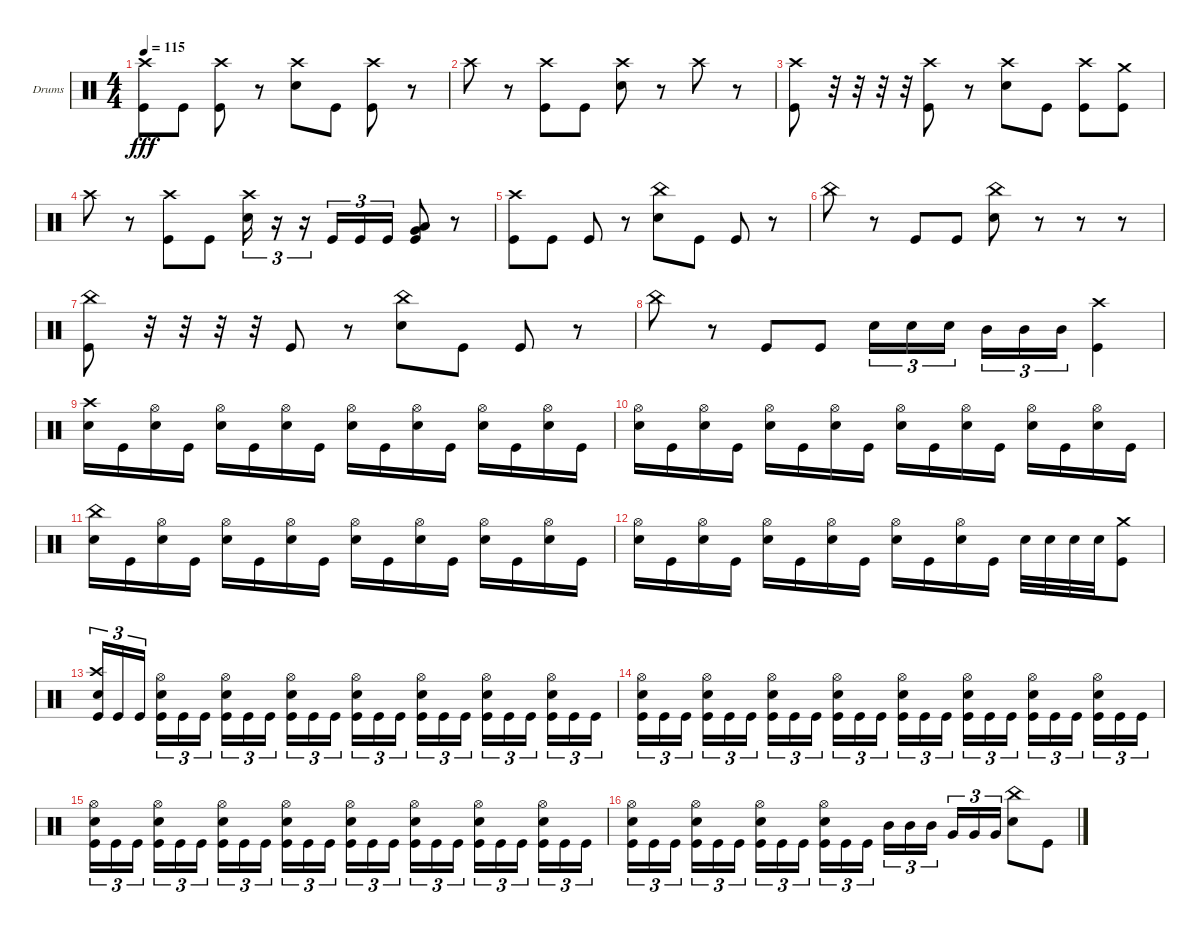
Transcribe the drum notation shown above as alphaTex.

\bracketExtendMode groupsimilarinstruments
\firstSystemTrackNameOrientation horizontal
\otherSystemsTrackNameOrientation horizontal
\track ("Drumkit" "Drums") {instrument percussion}
\staff {score}
\articulation defaults
\ts (4 4)
\tempo 115
\clef neutral
\ks c
("Kick (hit)" "Crash high (hit)").8{dy fff} "Kick (hit)".8 ("Kick (hit)" "Crash high (hit)").8 r.8 ("Crash high (hit)" "Snare (hit) 2").8 "Kick (hit)".8 ("Kick (hit)" "Crash high (hit)").8 r.8 |
"Crash high (hit)".8 r.8 ("Kick (hit)" "Crash high (hit)").8 "Kick (hit)".8 ("Crash high (hit)" "Snare (hit) 2").8 r.8 "Crash high (hit)".8 r.8 |
("Kick (hit)" "Crash high (hit)").8 r.32 r.32 r.32 r.32 ("Kick (hit)" "Crash high (hit)").8 r.8 ("Crash high (hit)" "Snare (hit) 2").8 "Kick (hit)".8 ("Kick (hit)" "Crash high (hit)").8 ("Kick (hit)" "Crash medium (hit)").8 |
"Crash high (hit)".8 r.8 ("Kick (hit)" "Crash high (hit)").8 "Kick (hit)".8 ("Crash high (hit)" "Snare (hit) 2").16{tu (3 2)} r.16{tu (3 2)} r.16{tu (3 2)} "Kick (hit)".16{tu (3 2)} "Kick (hit)".16{tu (3 2)} "Kick (hit)".16{tu (3 2)} ("Kick (hit)" "Very Low Tom (hit)" "Low Tom (hit)").8 r.8 |
("Kick (hit)" "Crash high (hit)").8 "Kick (hit)".8 "Kick (hit)".8 r.8 ("Snare (hit) 2" "China (hit)").8 "Kick (hit)".8 "Kick (hit)".8 r.8 |
"China (hit)".8 r.8 "Kick (hit)".8 "Kick (hit)".8 ("Snare (hit) 2" "China (hit)").8 r.8 r.8 r.8 |
("Kick (hit)" "China (hit)").8 r.32 r.32 r.32 r.32 "Kick (hit)".8 r.8 ("Snare (hit) 2" "China (hit)").8 "Kick (hit)".8 "Kick (hit)".8 r.8 |
"China (hit)".8 r.8 "Kick (hit)".8 "Kick (hit)".8 "Snare (hit) 2".16{tu (3 2)} "Snare (hit) 2".16{tu (3 2)} "Snare (hit) 2".16{tu (3 2)} "Mid Tom (hit)".16{tu (3 2)} "Mid Tom (hit)".16{tu (3 2)} "Mid Tom (hit)".16{tu (3 2)} ("Kick (hit)" "Crash high (hit)").4 |
("Snare (hit) 2" "Crash high (hit)").16 "Kick (hit)".16 ("Snare (hit) 2" "Hi-Hat (open)").16 "Kick (hit)".16 ("Snare (hit) 2" "Hi-Hat (open)").16 "Kick (hit)".16 ("Snare (hit) 2" "Hi-Hat (open)").16 "Kick (hit)".16 ("Snare (hit) 2" "Hi-Hat (open)").16 "Kick (hit)".16 ("Snare (hit) 2" "Hi-Hat (open)").16 "Kick (hit)".16 ("Snare (hit) 2" "Hi-Hat (open)").16 "Kick (hit)".16 ("Snare (hit) 2" "Hi-Hat (open)").16 "Kick (hit)".16 |
("Snare (hit) 2" "Hi-Hat (open)").16 "Kick (hit)".16 ("Snare (hit) 2" "Hi-Hat (open)").16 "Kick (hit)".16 ("Snare (hit) 2" "Hi-Hat (open)").16 "Kick (hit)".16 ("Snare (hit) 2" "Hi-Hat (open)").16 "Kick (hit)".16 ("Snare (hit) 2" "Hi-Hat (open)").16 "Kick (hit)".16 ("Snare (hit) 2" "Hi-Hat (open)").16 "Kick (hit)".16 ("Snare (hit) 2" "Hi-Hat (open)").16 "Kick (hit)".16 ("Snare (hit) 2" "Hi-Hat (open)").16 "Kick (hit)".16 |
("Snare (hit) 2" "China (hit)").16 "Kick (hit)".16 ("Snare (hit) 2" "Hi-Hat (open)").16 "Kick (hit)".16 ("Snare (hit) 2" "Hi-Hat (open)").16 "Kick (hit)".16 ("Snare (hit) 2" "Hi-Hat (open)").16 "Kick (hit)".16 ("Snare (hit) 2" "Hi-Hat (open)").16 "Kick (hit)".16 ("Snare (hit) 2" "Hi-Hat (open)").16 "Kick (hit)".16 ("Snare (hit) 2" "Hi-Hat (open)").16 "Kick (hit)".16 ("Snare (hit) 2" "Hi-Hat (open)").16 "Kick (hit)".16 |
("Snare (hit) 2" "Hi-Hat (open)").16 "Kick (hit)".16 ("Snare (hit) 2" "Hi-Hat (open)").16 "Kick (hit)".16 ("Snare (hit) 2" "Hi-Hat (open)").16 "Kick (hit)".16 ("Snare (hit) 2" "Hi-Hat (open)").16 "Kick (hit)".16 ("Snare (hit) 2" "Hi-Hat (open)").16 "Kick (hit)".16 ("Snare (hit) 2" "Hi-Hat (open)").16 "Kick (hit)".16 "Snare (hit) 2".32 "Snare (hit) 2".32 "Snare (hit) 2".32 "Snare (hit) 2".32 ("Crash medium (hit)" "Kick (hit)").8 |
("Kick (hit)" "Snare (hit) 2" "Crash high (hit)").16{tu (3 2)} "Kick (hit)".16{tu (3 2)} "Kick (hit)".16{tu (3 2)} ("Kick (hit)" "Snare (hit) 2" "Hi-Hat (open)").16{tu (3 2)} "Kick (hit)".16{tu (3 2)} "Kick (hit)".16{tu (3 2)} ("Kick (hit)" "Snare (hit) 2" "Hi-Hat (open)").16{tu (3 2)} "Kick (hit)".16{tu (3 2)} "Kick (hit)".16{tu (3 2)} ("Kick (hit)" "Snare (hit) 2" "Hi-Hat (open)").16{tu (3 2)} "Kick (hit)".16{tu (3 2)} "Kick (hit)".16{tu (3 2)} ("Kick (hit)" "Snare (hit) 2" "Hi-Hat (open)").16{tu (3 2)} "Kick (hit)".16{tu (3 2)} "Kick (hit)".16{tu (3 2)} ("Kick (hit)" "Snare (hit) 2" "Hi-Hat (open)").16{tu (3 2)} "Kick (hit)".16{tu (3 2)} "Kick (hit)".16{tu (3 2)} ("Kick (hit)" "Snare (hit) 2" "Hi-Hat (open)").16{tu (3 2)} "Kick (hit)".16{tu (3 2)} "Kick (hit)".16{tu (3 2)} ("Kick (hit)" "Snare (hit) 2" "Hi-Hat (open)").16{tu (3 2)} "Kick (hit)".16{tu (3 2)} "Kick (hit)".16{tu (3 2)} |
("Kick (hit)" "Snare (hit) 2" "Hi-Hat (open)").16{tu (3 2)} "Kick (hit)".16{tu (3 2)} "Kick (hit)".16{tu (3 2)} ("Kick (hit)" "Snare (hit) 2" "Hi-Hat (open)").16{tu (3 2)} "Kick (hit)".16{tu (3 2)} "Kick (hit)".16{tu (3 2)} ("Kick (hit)" "Snare (hit) 2" "Hi-Hat (open)").16{tu (3 2)} "Kick (hit)".16{tu (3 2)} "Kick (hit)".16{tu (3 2)} ("Kick (hit)" "Snare (hit) 2" "Hi-Hat (open)").16{tu (3 2)} "Kick (hit)".16{tu (3 2)} "Kick (hit)".16{tu (3 2)} ("Kick (hit)" "Snare (hit) 2" "Hi-Hat (open)").16{tu (3 2)} "Kick (hit)".16{tu (3 2)} "Kick (hit)".16{tu (3 2)} ("Kick (hit)" "Snare (hit) 2" "Hi-Hat (open)").16{tu (3 2)} "Kick (hit)".16{tu (3 2)} "Kick (hit)".16{tu (3 2)} ("Kick (hit)" "Snare (hit) 2" "Hi-Hat (open)").16{tu (3 2)} "Kick (hit)".16{tu (3 2)} "Kick (hit)".16{tu (3 2)} ("Kick (hit)" "Snare (hit) 2" "Hi-Hat (open)").16{tu (3 2)} "Kick (hit)".16{tu (3 2)} "Kick (hit)".16{tu (3 2)} |
("Kick (hit)" "Snare (hit) 2" "Hi-Hat (open)").16{tu (3 2)} "Kick (hit)".16{tu (3 2)} "Kick (hit)".16{tu (3 2)} ("Kick (hit)" "Snare (hit) 2" "Hi-Hat (open)").16{tu (3 2)} "Kick (hit)".16{tu (3 2)} "Kick (hit)".16{tu (3 2)} ("Kick (hit)" "Snare (hit) 2" "Hi-Hat (open)").16{tu (3 2)} "Kick (hit)".16{tu (3 2)} "Kick (hit)".16{tu (3 2)} ("Kick (hit)" "Snare (hit) 2" "Hi-Hat (open)").16{tu (3 2)} "Kick (hit)".16{tu (3 2)} "Kick (hit)".16{tu (3 2)} ("Kick (hit)" "Snare (hit) 2" "Hi-Hat (open)").16{tu (3 2)} "Kick (hit)".16{tu (3 2)} "Kick (hit)".16{tu (3 2)} ("Kick (hit)" "Snare (hit) 2" "Hi-Hat (open)").16{tu (3 2)} "Kick (hit)".16{tu (3 2)} "Kick (hit)".16{tu (3 2)} ("Kick (hit)" "Snare (hit) 2" "Hi-Hat (open)").16{tu (3 2)} "Kick (hit)".16{tu (3 2)} "Kick (hit)".16{tu (3 2)} ("Kick (hit)" "Snare (hit) 2" "Hi-Hat (open)").16{tu (3 2)} "Kick (hit)".16{tu (3 2)} "Kick (hit)".16{tu (3 2)} |
("Kick (hit)" "Snare (hit) 2" "Hi-Hat (open)").16{tu (3 2)} "Kick (hit)".16{tu (3 2)} "Kick (hit)".16{tu (3 2)} ("Kick (hit)" "Snare (hit) 2" "Hi-Hat (open)").16{tu (3 2)} "Kick (hit)".16{tu (3 2)} "Kick (hit)".16{tu (3 2)} ("Kick (hit)" "Snare (hit) 2" "Hi-Hat (open)").16{tu (3 2)} "Kick (hit)".16{tu (3 2)} "Kick (hit)".16{tu (3 2)} ("Kick (hit)" "Snare (hit) 2" "Hi-Hat (open)").16{tu (3 2)} "Kick (hit)".16{tu (3 2)} "Kick (hit)".16{tu (3 2)} "Mid Tom (hit)".16{tu (3 2)} "Mid Tom (hit)".16{tu (3 2)} "Mid Tom (hit)".16{tu (3 2)} "Very Low Tom (hit)".16{tu (3 2)} "Very Low Tom (hit)".16{tu (3 2)} "Very Low Tom (hit)".16{tu (3 2)} ("Snare (hit) 2" "China (hit)").8 "Kick (hit)".8
